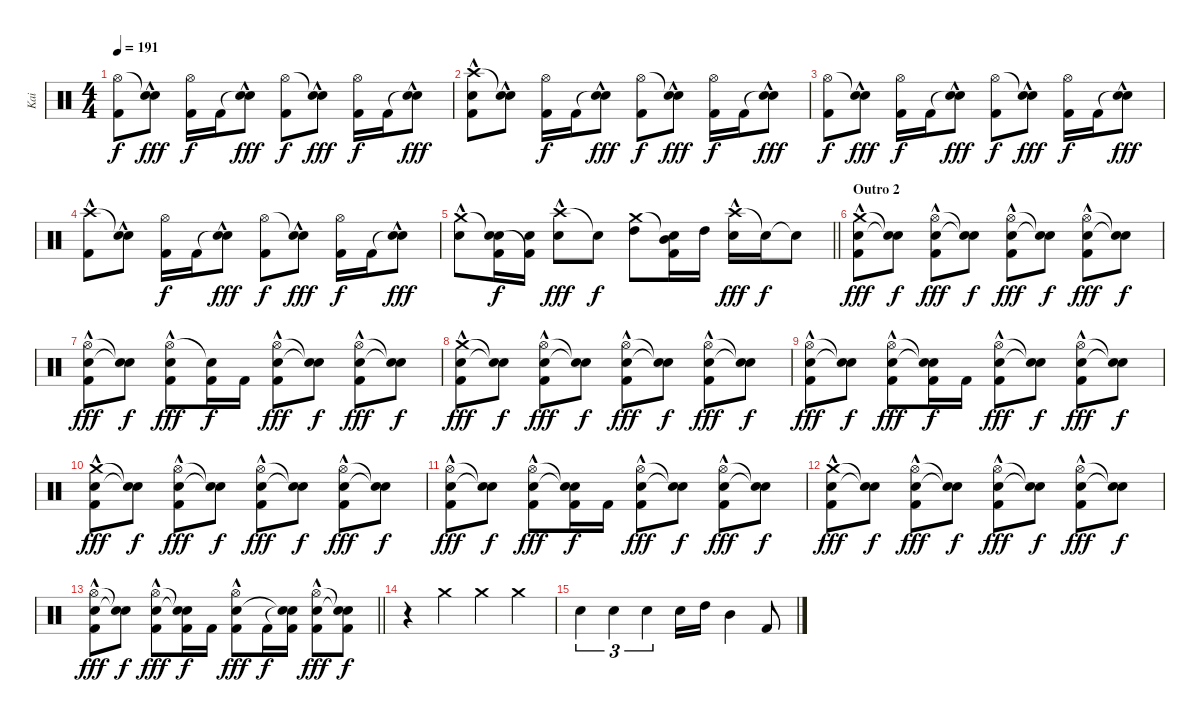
\track ("Kai" "Kai") {instrument percussion}
\staff {score}
\articulation defaults
\ts (4 4)
\tempo 191
\clef neutral
\ks c
("Hi-Hat (open)" "Kick (hit) 2").8{dy f} ("Snare (hit)"{t} "Snare (hit) 2"{hac}).8{dy fff} ("Hi-Hat (open)" "Kick (hit) 2").16{dy f} "Kick (hit) 2".16 ("Snare (hit)"{t} "Snare (hit) 2"{hac}).8{dy fff} ("Hi-Hat (open)" "Kick (hit) 2").8{dy f} ("Snare (hit)"{t} "Snare (hit) 2"{hac}).8{dy fff} ("Hi-Hat (open)" "Kick (hit) 2").16{dy f} "Kick (hit) 2".16 ("Snare (hit)"{t} "Snare (hit) 2"{hac}).8{dy fff} |
("Crash high (hit)"{hac} "Snare (hit) 2" "Kick (hit) 2").8 ("Snare (hit)"{t} "Snare (hit) 2"{hac}).8 ("Hi-Hat (open)" "Kick (hit) 2").16{dy f} "Kick (hit) 2".16 ("Snare (hit)"{t} "Snare (hit) 2"{hac}).8{dy fff} ("Hi-Hat (open)" "Kick (hit) 2").8{dy f} ("Snare (hit)"{t} "Snare (hit) 2"{hac}).8{dy fff} ("Hi-Hat (open)" "Kick (hit) 2").16{dy f} "Kick (hit) 2".16 ("Snare (hit)"{t} "Snare (hit) 2"{hac}).8{dy fff} |
("Hi-Hat (open)" "Kick (hit) 2").8{dy f} ("Snare (hit)"{t} "Snare (hit) 2"{hac}).8{dy fff} ("Hi-Hat (open)" "Kick (hit) 2").16{dy f} "Kick (hit) 2".16 ("Snare (hit)"{t} "Snare (hit) 2"{hac}).8{dy fff} ("Hi-Hat (open)" "Kick (hit) 2").8{dy f} ("Snare (hit)"{t} "Snare (hit) 2"{hac}).8{dy fff} ("Hi-Hat (open)" "Kick (hit) 2").16{dy f} "Kick (hit) 2".16 ("Snare (hit)"{t} "Snare (hit) 2"{hac}).8{dy fff} |
("Crash high (hit)"{hac} "Kick (hit) 2").8 ("Snare (hit)"{t} "Snare (hit) 2"{hac}).8 ("Hi-Hat (open)" "Kick (hit) 2").16{dy f} "Kick (hit) 2".16 ("Snare (hit)"{t} "Snare (hit) 2"{hac}).8{dy fff} ("Hi-Hat (open)" "Kick (hit) 2").8{dy f} ("Snare (hit)"{t} "Snare (hit) 2"{hac}).8{dy fff} ("Hi-Hat (open)" "Kick (hit) 2").16{dy f} "Kick (hit) 2".16 ("Snare (hit)"{t} "Snare (hit) 2"{hac}).8{dy fff} |
\barLineRight lightlight
("Crash medium (hit)" "Snare (hit) 2"{hac}).8 ("Snare (hit)"{t} "Snare (hit) 2" "Kick (hit) 2").16{dy f} ("Snare (hit) 2" "Kick (hit) 2"{t}).16 ("Crash high (hit)"{hac} "Snare (hit) 2"{hac}).8{dy fff} "Snare (hit)"{t}.8{dy f} ("Crash medium (hit)" "High Tom (hit)").8 ("Snare (hit)"{t} "Mid Tom (hit)" "Kick (hit) 2").16 "High Tom (hit)".16 ("Crash high (hit)"{hac} "Snare (hit) 2"{hac}).16{dy fff} "Snare (hit)"{t}.16{dy f} "Snare (hit)"{t}.8 |
\section ("" "Outro 2")
("Crash medium (hit)"{hac} "Snare (hit) 2"{hac} "Kick (hit) 2").8{dy fff} ("Snare (hit)"{t} "Snare (hit)"{t}).8{dy f} ("Hi-Hat (open)" "Snare (hit) 2"{hac} "Kick (hit) 2").8{dy fff} ("Snare (hit)"{t} "Snare (hit)"{t}).8{dy f} ("Hi-Hat (open)" "Snare (hit) 2"{hac} "Kick (hit) 2").8{dy fff} ("Snare (hit)"{t} "Snare (hit)"{t}).8{dy f} ("Hi-Hat (open)" "Snare (hit) 2"{hac} "Kick (hit) 2").8{dy fff} ("Snare (hit)"{t} "Snare (hit)"{t}).8{dy f} |
("Hi-Hat (open)" "Snare (hit) 2"{hac} "Kick (hit) 2").8{dy fff} ("Snare (hit)"{t} "Snare (hit)"{t}).8{dy f} ("Hi-Hat (open)" "Snare (hit) 2"{hac} "Kick (hit) 2").8{dy fff} ("Snare (hit)"{t} "Kick (hit) 2").16{dy f} "Kick (hit) 2".16 ("Hi-Hat (open)" "Snare (hit) 2"{hac} "Kick (hit) 2").8{dy fff} ("Snare (hit)"{t} "Snare (hit)"{t}).8{dy f} ("Hi-Hat (open)" "Snare (hit) 2"{hac} "Kick (hit) 2").8{dy fff} ("Snare (hit)"{t} "Snare (hit)"{t}).8{dy f} |
("Crash medium (hit)"{hac} "Snare (hit) 2"{hac} "Kick (hit) 2").8{dy fff} ("Snare (hit)"{t} "Snare (hit)"{t}).8{dy f} ("Hi-Hat (open)" "Snare (hit) 2"{hac} "Kick (hit) 2").8{dy fff} ("Snare (hit)"{t} "Snare (hit)"{t}).8{dy f} ("Hi-Hat (open)" "Snare (hit) 2"{hac} "Kick (hit) 2").8{dy fff} ("Snare (hit)"{t} "Snare (hit)"{t}).8{dy f} ("Hi-Hat (open)" "Snare (hit) 2"{hac} "Kick (hit) 2").8{dy fff} ("Snare (hit)"{t} "Snare (hit)"{t}).8{dy f} |
("Hi-Hat (open)" "Snare (hit) 2"{hac} "Kick (hit) 2").8{dy fff} ("Snare (hit)"{t} "Snare (hit)"{t}).8{dy f} ("Hi-Hat (open)" "Snare (hit) 2"{hac} "Kick (hit) 2").8{dy fff} ("Snare (hit)"{t} "Snare (hit)"{t} "Kick (hit) 2").16{dy f} "Kick (hit) 2".16 ("Hi-Hat (open)" "Snare (hit) 2"{hac} "Kick (hit) 2").8{dy fff} ("Snare (hit)"{t} "Snare (hit)"{t}).8{dy f} ("Hi-Hat (open)" "Snare (hit) 2"{hac} "Kick (hit) 2").8{dy fff} ("Snare (hit)"{t} "Snare (hit)"{t}).8{dy f} |
("Crash medium (hit)"{hac} "Snare (hit) 2"{hac} "Kick (hit) 2").8{dy fff} ("Snare (hit)"{t} "Snare (hit)"{t}).8{dy f} ("Hi-Hat (open)" "Snare (hit) 2"{hac} "Kick (hit) 2").8{dy fff} ("Snare (hit)"{t} "Snare (hit)"{t}).8{dy f} ("Hi-Hat (open)" "Snare (hit) 2"{hac} "Kick (hit) 2").8{dy fff} ("Snare (hit)"{t} "Snare (hit)"{t}).8{dy f} ("Hi-Hat (open)" "Snare (hit) 2"{hac} "Kick (hit) 2").8{dy fff} ("Snare (hit)"{t} "Snare (hit)"{t}).8{dy f} |
("Hi-Hat (open)" "Snare (hit) 2"{hac} "Kick (hit) 2").8{dy fff} ("Snare (hit)"{t} "Snare (hit)"{t}).8{dy f} ("Hi-Hat (open)" "Snare (hit) 2"{hac} "Kick (hit) 2").8{dy fff} ("Snare (hit)"{t} "Snare (hit)"{t} "Kick (hit) 2").16{dy f} "Kick (hit) 2".16 ("Hi-Hat (open)" "Snare (hit) 2"{hac} "Kick (hit) 2").8{dy fff} ("Snare (hit)"{t} "Snare (hit)"{t}).8{dy f} ("Hi-Hat (open)" "Snare (hit) 2"{hac} "Kick (hit) 2").8{dy fff} ("Snare (hit)"{t} "Snare (hit)"{t}).8{dy f} |
("Crash medium (hit)"{hac} "Snare (hit) 2"{hac} "Kick (hit) 2").8{dy fff} ("Snare (hit)"{t} "Snare (hit)"{t}).8{dy f} ("Hi-Hat (open)" "Snare (hit) 2"{hac} "Kick (hit) 2").8{dy fff} ("Snare (hit)"{t} "Snare (hit)"{t}).8{dy f} ("Hi-Hat (open)" "Snare (hit) 2"{hac} "Kick (hit) 2").8{dy fff} ("Snare (hit)"{t} "Snare (hit)"{t}).8{dy f} ("Hi-Hat (open)" "Snare (hit) 2"{hac} "Kick (hit) 2").8{dy fff} ("Snare (hit)"{t} "Snare (hit)"{t}).8{dy f} |
\barLineRight lightlight
("Hi-Hat (open)" "Snare (hit) 2"{hac} "Kick (hit) 2").8{dy fff} ("Snare (hit)"{t} "Snare (hit)"{t}).8{dy f} ("Hi-Hat (open)" "Snare (hit) 2"{hac} "Kick (hit) 2").8{dy fff} ("Snare (hit)"{t} "Snare (hit)"{t} "Kick (hit) 2").16{dy f} "Kick (hit) 2".16 ("Hi-Hat (open)" "Snare (hit) 2"{hac} "Kick (hit) 2").8{dy fff} "Kick (hit) 2".16{dy f} ("Snare (hit)"{t} "Snare (hit)"{t} "Kick (hit) 2").16 ("Hi-Hat (open)" "Snare (hit) 2"{hac} "Kick (hit) 2").8{dy fff} ("Snare (hit)"{t} "Snare (hit)"{t} "Kick (hit) 2").8{dy f} |
r.4 "Crash medium (hit)".4 "Crash medium (hit)".4 "Crash medium (hit)".4 |
"Snare (hit) 2".4{tu (3 2)} "Snare (hit) 2".4{tu (3 2)} "Snare (hit) 2".4{tu (3 2)} "Snare (hit) 2".16 "High Tom (hit)".16 "Mid Tom (hit)".4 "Kick (hit) 2".8
